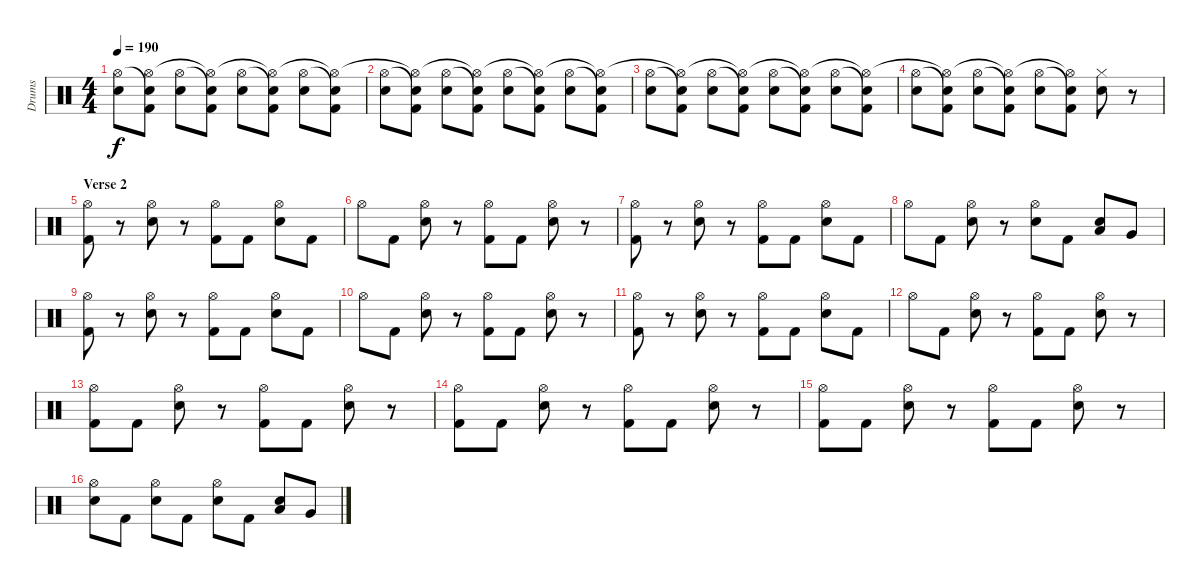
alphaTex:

\track ("Drums" "Drums") {instrument percussion}
\staff {score}
\articulation defaults
\ts (4 4)
\tempo 190
\clef neutral
\ks c
("Electric Snare (hit)" "Hi-Hat (open)").8{dy f} ("Kick (hit) 2" "Electric Snare (hit)"{t} "Hi-Hat (open)"{t}).8 ("Electric Snare (hit)" "Hi-Hat (open)").8 ("Kick (hit) 2" "Electric Snare (hit)"{t} "Hi-Hat (open)"{t}).8 ("Electric Snare (hit)" "Hi-Hat (open)").8 ("Kick (hit) 2" "Electric Snare (hit)"{t} "Hi-Hat (open)"{t}).8 ("Electric Snare (hit)" "Hi-Hat (open)").8 ("Kick (hit) 2" "Electric Snare (hit)"{t} "Hi-Hat (open)"{t}).8 |
("Electric Snare (hit)" "Hi-Hat (open)").8 ("Kick (hit) 2" "Electric Snare (hit)"{t} "Hi-Hat (open)"{t}).8 ("Electric Snare (hit)" "Hi-Hat (open)").8 ("Kick (hit) 2" "Electric Snare (hit)"{t} "Hi-Hat (open)"{t}).8 ("Electric Snare (hit)" "Hi-Hat (open)").8 ("Kick (hit) 2" "Electric Snare (hit)"{t} "Hi-Hat (open)"{t}).8 ("Electric Snare (hit)" "Hi-Hat (open)").8 ("Kick (hit) 2" "Electric Snare (hit)"{t} "Hi-Hat (open)"{t}).8 |
("Electric Snare (hit)" "Hi-Hat (open)").8 ("Kick (hit) 2" "Electric Snare (hit)"{t} "Hi-Hat (open)"{t}).8 ("Electric Snare (hit)" "Hi-Hat (open)").8 ("Kick (hit) 2" "Electric Snare (hit)"{t} "Hi-Hat (open)"{t}).8 ("Electric Snare (hit)" "Hi-Hat (open)").8 ("Kick (hit) 2" "Electric Snare (hit)"{t} "Hi-Hat (open)"{t}).8 ("Electric Snare (hit)" "Hi-Hat (open)").8 ("Kick (hit) 2" "Electric Snare (hit)"{t} "Hi-Hat (open)"{t}).8 |
("Electric Snare (hit)" "Hi-Hat (open)").8 ("Kick (hit) 2" "Electric Snare (hit)"{t} "Hi-Hat (open)"{t}).8 ("Electric Snare (hit)" "Hi-Hat (open)").8 ("Kick (hit) 2" "Electric Snare (hit)"{t} "Hi-Hat (open)"{t}).8 ("Electric Snare (hit)" "Hi-Hat (open)").8 ("Kick (hit) 2" "Electric Snare (hit)"{t} "Hi-Hat (open)"{t}).8 ("Electric Snare (hit)" "Hi-Hat (closed)").8 r.8 |
\section ("" "Verse 2")
("Kick (hit) 2" "Hi-Hat (open)").8 r.8 ("Electric Snare (hit)" "Hi-Hat (open)").8 r.8 ("Kick (hit) 2" "Hi-Hat (open)").8 "Kick (hit) 2".8 ("Electric Snare (hit)" "Hi-Hat (open)").8 "Kick (hit) 2".8 |
"Hi-Hat (open)".8 "Kick (hit) 2".8 ("Electric Snare (hit)" "Hi-Hat (open)").8 r.8 ("Kick (hit) 2" "Hi-Hat (open)").8 "Kick (hit) 2".8 ("Electric Snare (hit)" "Hi-Hat (open)").8 r.8 |
("Kick (hit) 2" "Hi-Hat (open)").8 r.8 ("Electric Snare (hit)" "Hi-Hat (open)").8 r.8 ("Kick (hit) 2" "Hi-Hat (open)").8 "Kick (hit) 2".8 ("Electric Snare (hit)" "Hi-Hat (open)").8 "Kick (hit) 2".8 |
"Hi-Hat (open)".8 "Kick (hit) 2".8 ("Electric Snare (hit)" "Hi-Hat (open)").8 r.8 ("Electric Snare (hit)" "Hi-Hat (open)").8 "Kick (hit) 2".8 ("Electric Snare (hit)" "Low Tom (hit)").8 "Very Low Tom (hit)".8 |
("Kick (hit) 2" "Hi-Hat (open)").8 r.8 ("Electric Snare (hit)" "Hi-Hat (open)").8 r.8 ("Kick (hit) 2" "Hi-Hat (open)").8 "Kick (hit) 2".8 ("Electric Snare (hit)" "Hi-Hat (open)").8 "Kick (hit) 2".8 |
"Hi-Hat (open)".8 "Kick (hit) 2".8 ("Electric Snare (hit)" "Hi-Hat (open)").8 r.8 ("Kick (hit) 2" "Hi-Hat (open)").8 "Kick (hit) 2".8 ("Electric Snare (hit)" "Hi-Hat (open)").8 r.8 |
("Kick (hit) 2" "Hi-Hat (open)").8 r.8 ("Electric Snare (hit)" "Hi-Hat (open)").8 r.8 ("Kick (hit) 2" "Hi-Hat (open)").8 "Kick (hit) 2".8 ("Electric Snare (hit)" "Hi-Hat (open)").8 "Kick (hit) 2".8 |
"Hi-Hat (open)".8 "Kick (hit) 2".8 ("Electric Snare (hit)" "Hi-Hat (open)").8 r.8 ("Kick (hit) 2" "Hi-Hat (open)").8 "Kick (hit) 2".8 ("Electric Snare (hit)" "Hi-Hat (open)").8 r.8 |
("Kick (hit) 2" "Hi-Hat (open)").8 "Kick (hit) 2".8 ("Electric Snare (hit)" "Hi-Hat (open)").8 r.8 ("Kick (hit) 2" "Hi-Hat (open)").8 "Kick (hit) 2".8 ("Electric Snare (hit)" "Hi-Hat (open)").8 r.8 |
("Kick (hit) 2" "Hi-Hat (open)").8 "Kick (hit) 2".8 ("Electric Snare (hit)" "Hi-Hat (open)").8 r.8 ("Kick (hit) 2" "Hi-Hat (open)").8 "Kick (hit) 2".8 ("Electric Snare (hit)" "Hi-Hat (open)").8 r.8 |
("Kick (hit) 2" "Hi-Hat (open)").8 "Kick (hit) 2".8 ("Electric Snare (hit)" "Hi-Hat (open)").8 r.8 ("Kick (hit) 2" "Hi-Hat (open)").8 "Kick (hit) 2".8 ("Electric Snare (hit)" "Hi-Hat (open)").8 r.8 |
("Electric Snare (hit)" "Hi-Hat (open)").8 "Kick (hit) 2".8 ("Electric Snare (hit)" "Hi-Hat (open)").8 "Kick (hit) 2".8 ("Electric Snare (hit)" "Hi-Hat (open)").8 "Kick (hit) 2".8 ("Electric Snare (hit)" "Low Tom (hit)").8 "Very Low Tom (hit)".8
